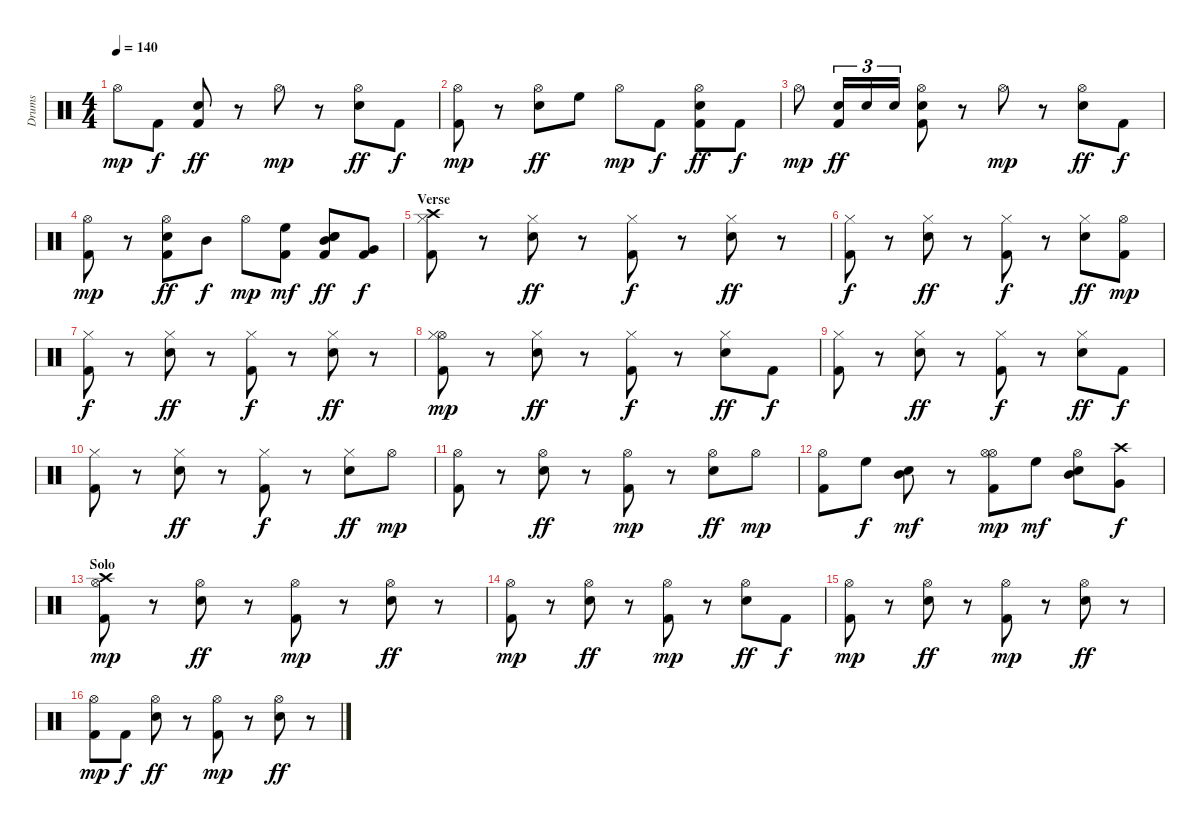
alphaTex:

\track ("Drums" "Drums") {instrument percussion}
\staff {score}
\articulation defaults
\ts (4 4)
\tempo 140
\clef neutral
\ks c "Hi-Hat (open)".8{dy mp} "Kick (hit) 2".8{dy f}
("Kick (hit) 2" "Snare (hit) 2").8{dy ff} r.8 "Hi-Hat (open)".8{dy mp} r.8 ("Hi-Hat (open)" "Snare (hit) 2").8{dy ff} "Kick (hit) 2".8{dy f} |
("Kick (hit) 2" "Hi-Hat (open)").8{dy mp} r.8 ("Hi-Hat (open)" "Snare (hit) 2").8{dy ff} "High Floor Tom (hit)".8 "Hi-Hat (open)".8{dy mp} "Kick (hit) 2".8{dy f} ("Kick (hit) 2" "Hi-Hat (open)" "Snare (hit) 2").8{dy ff} "Kick (hit) 2".8{dy f} |
"Hi-Hat (open)".8{dy mp} ("Kick (hit) 2" "Snare (hit) 2").16{tu (3 2) dy ff} "Snare (hit) 2".16{tu (3 2)} "Snare (hit) 2".16{tu (3 2)} ("Kick (hit) 2" "Hi-Hat (open)" "Snare (hit) 2").8 r.8 "Hi-Hat (open)".8{dy mp} r.8 ("Hi-Hat (open)" "Snare (hit) 2").8{dy ff} "Kick (hit) 2".8{dy f} |
("Kick (hit) 2" "Hi-Hat (open)").8{dy mp} r.8 ("Kick (hit) 2" "Hi-Hat (open)" "Snare (hit) 2").8{dy ff} "Mid Tom (hit)".8{dy f} "Hi-Hat (open)".8{dy mp} ("Kick (hit) 2" "High Floor Tom (hit)").8{dy mf} ("Snare (hit) 2" "Kick (hit) 2" "Snare (hit) 2" "Mid Tom (hit)").8{dy ff} ("Kick (hit) 2" "Very Low Tom (hit)").8{dy f} |
\section ("" "Verse")
("Kick (hit) 2" "Crash high (hit)" "Hi-Hat (closed)").8 r.8 ("Hi-Hat (closed)" "Snare (hit) 2").8{dy ff} r.8 ("Kick (hit) 2" "Hi-Hat (closed)").8{dy f} r.8 ("Hi-Hat (closed)" "Snare (hit) 2").8{dy ff} r.8 |
("Kick (hit) 2" "Hi-Hat (closed)").8{dy f} r.8 ("Hi-Hat (closed)" "Snare (hit) 2").8{dy ff} r.8 ("Kick (hit) 2" "Hi-Hat (closed)").8{dy f} r.8 ("Hi-Hat (closed)" "Snare (hit) 2").8{dy ff} ("Kick (hit) 2" "Hi-Hat (open)").8{dy mp} |
("Kick (hit) 2" "Hi-Hat (closed)").8{dy f} r.8 ("Hi-Hat (closed)" "Snare (hit) 2").8{dy ff} r.8 ("Kick (hit) 2" "Hi-Hat (closed)").8{dy f} r.8 ("Hi-Hat (closed)" "Snare (hit) 2").8{dy ff} r.8 |
("Hi-Hat (open)" "Kick (hit) 2" "Hi-Hat (closed)").8{dy mp} r.8 ("Hi-Hat (closed)" "Snare (hit) 2").8{dy ff} r.8 ("Kick (hit) 2" "Hi-Hat (closed)").8{dy f} r.8 ("Hi-Hat (closed)" "Snare (hit) 2").8{dy ff} "Kick (hit) 2".8{dy f} |
("Kick (hit) 2" "Hi-Hat (closed)").8 r.8 ("Hi-Hat (closed)" "Snare (hit) 2").8{dy ff} r.8 ("Kick (hit) 2" "Hi-Hat (closed)").8{dy f} r.8 ("Hi-Hat (closed)" "Snare (hit) 2").8{dy ff} "Kick (hit) 2".8{dy f} |
("Kick (hit) 2" "Hi-Hat (closed)").8 r.8 ("Hi-Hat (closed)" "Snare (hit) 2").8{dy ff} r.8 ("Kick (hit) 2" "Hi-Hat (closed)").8{dy f} r.8 ("Hi-Hat (closed)" "Snare (hit) 2").8{dy ff} "Hi-Hat (open)".8{dy mp} |
("Kick (hit) 2" "Hi-Hat (open)").8 r.8 ("Hi-Hat (open)" "Snare (hit) 2").8{dy ff} r.8 ("Kick (hit) 2" "Hi-Hat (open)").8{dy mp} r.8 ("Hi-Hat (open)" "Snare (hit) 2").8{dy ff} "Hi-Hat (open)".8{dy mp} |
("Kick (hit) 2" "Hi-Hat (open)").8 "High Floor Tom (hit)".8{dy f} ("Snare (hit) 2" "Mid Tom (hit)").8{dy mf} r.8 ("Hi-Hat (open)" "Kick (hit) 2" "Hi-Hat (open)").8{dy mp} "High Floor Tom (hit)".8{dy mf} ("Hi-Hat (open)" "Snare (hit) 2" "Mid Tom (hit)").8 ("Crash high (hit)" "Very Low Tom (hit)").8{dy f} |
\section ("" "Solo")
("Kick (hit) 2" "Crash high (hit)" "Hi-Hat (open)").8{dy mp} r.8 ("Hi-Hat (open)" "Snare (hit) 2").8{dy ff} r.8 ("Kick (hit) 2" "Hi-Hat (open)").8{dy mp} r.8 ("Hi-Hat (open)" "Snare (hit) 2").8{dy ff} r.8 |
("Kick (hit) 2" "Hi-Hat (open)").8{dy mp} r.8 ("Hi-Hat (open)" "Snare (hit) 2").8{dy ff} r.8 ("Kick (hit) 2" "Hi-Hat (open)").8{dy mp} r.8 ("Hi-Hat (open)" "Snare (hit) 2").8{dy ff} "Kick (hit) 2".8{dy f} |
("Kick (hit) 2" "Hi-Hat (open)").8{dy mp} r.8 ("Hi-Hat (open)" "Snare (hit) 2").8{dy ff} r.8 ("Kick (hit) 2" "Hi-Hat (open)").8{dy mp} r.8 ("Hi-Hat (open)" "Snare (hit) 2").8{dy ff} r.8 |
("Kick (hit) 2" "Hi-Hat (open)").8{dy mp} "Kick (hit) 2".8{dy f} ("Hi-Hat (open)" "Snare (hit) 2").8{dy ff} r.8 ("Kick (hit) 2" "Hi-Hat (open)").8{dy mp} r.8 ("Hi-Hat (open)" "Snare (hit) 2").8{dy ff} r.8
